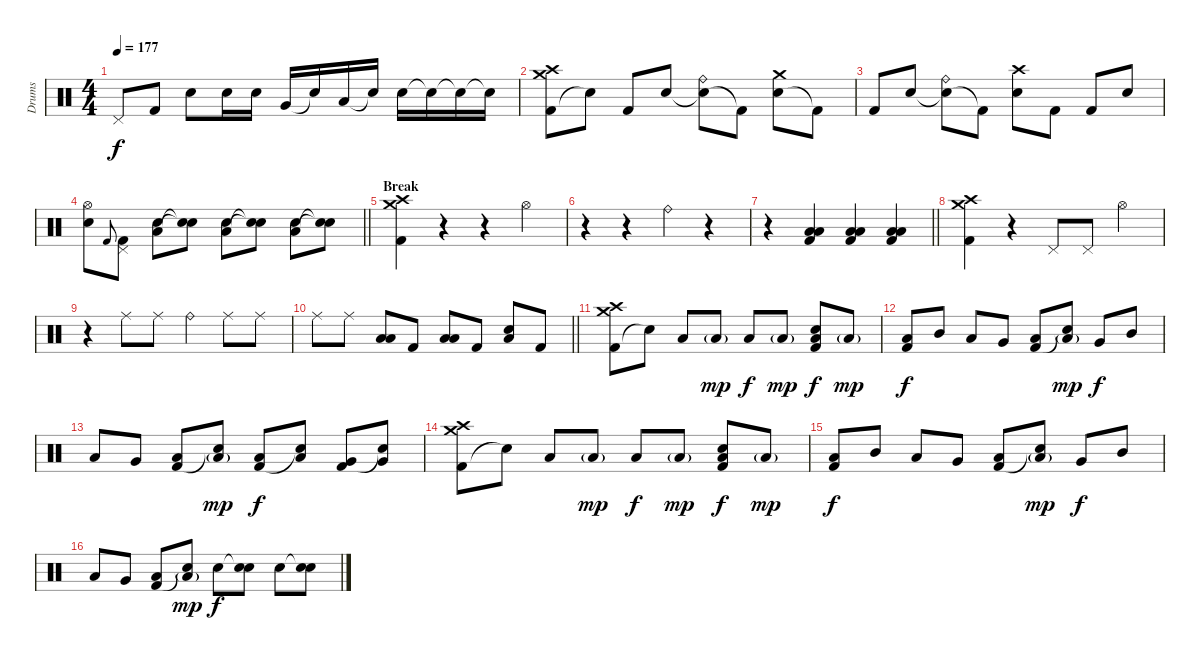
\track ("Drums" "Drums") {instrument percussion}
\staff {score}
\articulation defaults
\ts (4 4)
\tempo 177
\clef neutral
\ks c "Pedal Hi-Hat (hit)".8{dy f} "Kick (hit) 2".8 "Electric Snare (hit)".8 "Electric Snare (hit)".16 "Electric Snare (hit)".16 "Very Low Tom (hit)".16 "Snare (hit)"{t}.16 "Low Floor Tom (hit)".16 "Snare (hit)"{t}.16 "Electric Snare (hit)".16 "Snare (hit)"{t}.16 "Snare (hit)"{t}.16 "Snare (hit)"{t}.16
|
("Kick (hit) 2" "Crash medium (hit)" "Crash high (hit)").8 "Snare (hit)"{t}.8 "Kick (hit) 2".8 "Electric Snare (hit)".8 ("Snare (hit)"{t} "Ride (bell)").8 "Kick (hit) 2"{t}.8 ("Electric Snare (hit)" "Crash medium (hit)").8 "Kick (hit) 2"{t}.8 |
"Kick (hit) 2".8 "Electric Snare (hit)".8 ("Snare (hit)"{t} "Ride (bell)").8 "Kick (hit) 2"{t}.8 ("Electric Snare (hit)" "Crash high (hit)").8 "Kick (hit) 2".8 "Kick (hit) 2".8 "Electric Snare (hit)".8 |
\barLineRight lightlight
("Electric Snare (hit)" "Hi-Hat (open)").8 "Kick (hit) 2".8{gr onbeat} ("Kick (hit) 2" "Pedal Hi-Hat (hit)").8 ("Electric Snare (hit)" "Low Floor Tom (hit)").8 ("Snare (hit)"{t} "Snare (hit)"{t}).8 ("Electric Snare (hit)" "Low Floor Tom (hit)").8 ("Snare (hit)"{t} "Snare (hit)"{t}).8 ("Electric Snare (hit)" "Low Floor Tom (hit)").8 ("Snare (hit)"{t} "Snare (hit)"{t}).8 |
\section ("" "Break")
("Kick (hit) 2" "Crash medium (hit)" "Crash high (hit)").4 r.4 r.4 "Hi-Hat (open)".4 |
r.4 r.4 "Ride (bell)".4 r.4 |
\barLineRight lightlight
r.4 ("Kick (hit) 2" "Low Floor Tom (hit)" "Low Tom (hit)").4 ("Kick (hit) 2" "Low Floor Tom (hit)" "Low Tom (hit)").4 ("Kick (hit) 2" "Low Floor Tom (hit)" "Low Tom (hit)").4 |
("Kick (hit) 2" "Crash medium (hit)" "Crash high (hit)").4 r.4 "Pedal Hi-Hat (hit)".8 "Pedal Hi-Hat (hit)".8 "Hi-Hat (open)".4 |
r.4 "Ride (middle)".8 "Ride (middle)".8 "Ride (bell)".4 "Ride (middle)".8 "Ride (middle)".8 |
\barLineRight lightlight "Ride (middle)".8 "Ride (middle)".8
("Low Floor Tom (hit)" "Low Tom (hit)").8 "Kick (hit) 2".8 ("Low Floor Tom (hit)" "Low Tom (hit)").8 "Kick (hit) 2".8 ("Electric Snare (hit)" "Low Floor Tom (hit)").8 "Kick (hit) 2".8 |
("Kick (hit) 2" "Crash medium (hit)" "Crash high (hit)").8 "Snare (hit)"{t}.8 "Low Floor Tom (hit)".8 "Low Floor Tom (hit)"{g}.8{dy mp} "Low Floor Tom (hit)".8{dy f} "Low Floor Tom (hit)"{g}.8{dy mp} ("Low Floor Tom (hit)" "Electric Snare (hit)" "Kick (hit) 2").8{dy f} "Low Floor Tom (hit)"{g}.8{dy mp} |
("Kick (hit) 2" "Low Floor Tom (hit)").8{dy f} "Mid Tom (hit)".8 "Low Tom (hit)".8 "Very Low Tom (hit)".8 ("Kick (hit) 2" "Low Floor Tom (hit)").8 ("Snare (hit)"{t} "Low Floor Tom (hit)"{g}).8{dy mp} "Very Low Tom (hit)".8{dy f} "Mid Tom (hit)".8 |
"Low Tom (hit)".8 "Very Low Tom (hit)".8 ("Kick (hit) 2" "Low Floor Tom (hit)").8 ("Snare (hit)"{t} "Low Floor Tom (hit)"{g}).8{dy mp} ("Kick (hit) 2" "Low Tom (hit)").8{dy f} ("Snare (hit)"{t} "Low Tom (hit)").8 ("Kick (hit) 2" "Very Low Tom (hit)").8 ("Snare (hit)"{t} "Very Low Tom (hit)").8 |
("Kick (hit) 2" "Crash medium (hit)" "Crash high (hit)").8 "Snare (hit)"{t}.8 "Low Floor Tom (hit)".8 "Low Floor Tom (hit)"{g}.8{dy mp} "Low Floor Tom (hit)".8{dy f} "Low Floor Tom (hit)"{g}.8{dy mp} ("Low Floor Tom (hit)" "Electric Snare (hit)" "Kick (hit) 2").8{dy f} "Low Floor Tom (hit)"{g}.8{dy mp} |
("Kick (hit) 2" "Low Floor Tom (hit)").8{dy f} "Mid Tom (hit)".8 "Low Tom (hit)".8 "Very Low Tom (hit)".8 ("Kick (hit) 2" "Low Floor Tom (hit)").8 ("Snare (hit)"{t} "Low Floor Tom (hit)"{g}).8{dy mp} "Very Low Tom (hit)".8{dy f} "Mid Tom (hit)".8 |
"Low Tom (hit)".8 "Very Low Tom (hit)".8 ("Kick (hit) 2" "Low Floor Tom (hit)").8 ("Snare (hit)"{t} "Low Floor Tom (hit)"{g}).8{dy mp} "Electric Snare (hit)".8{dy f} ("Snare (hit)"{t} "Electric Snare (hit)").8 "Electric Snare (hit)".8 ("Snare (hit)"{t} "Electric Snare (hit)").8
